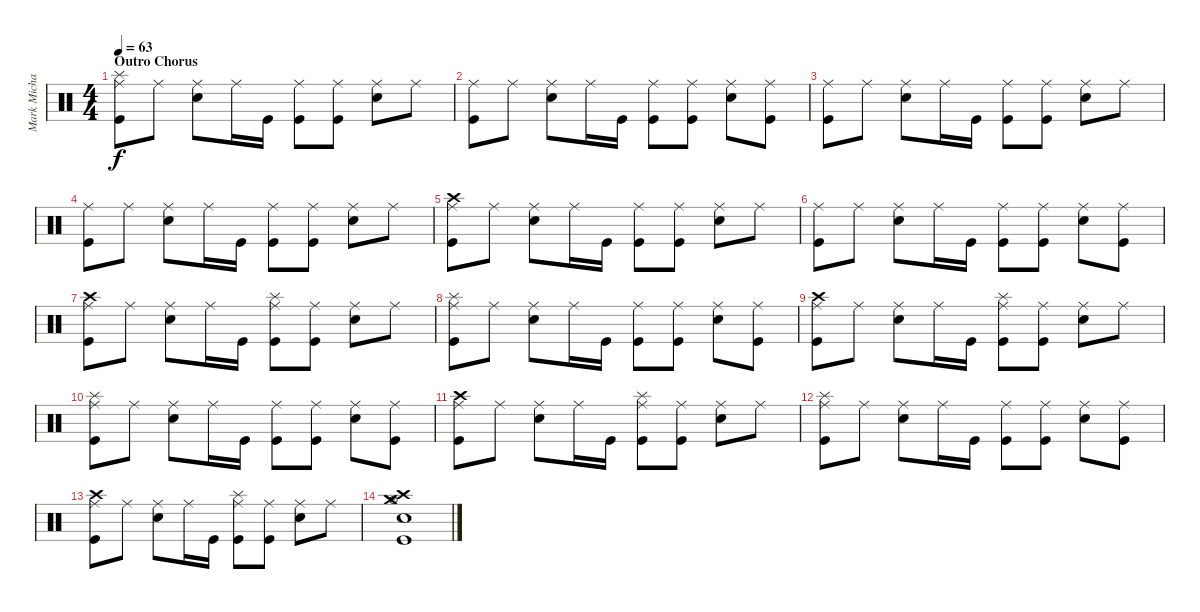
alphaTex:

\track ("Mark Michals - Drums" "Mark Micha") {instrument percussion}
\staff {score}
\articulation defaults
\ts (4 4)
\section ("" "Outro Chorus")
\tempo 63
\clef neutral
\ks c
("Ride (middle)" "Splash (hit)" "Kick (hit)").8{dy f} "Ride (middle)".8 ("Ride (middle)" "Snare (hit) 2").8 "Ride (middle)".16 "Kick (hit)".16 ("Ride (middle)" "Kick (hit)").8 ("Ride (middle)" "Kick (hit)").8 ("Ride (middle)" "Snare (hit) 2").8 "Ride (middle)".8 |
("Ride (middle)" "Kick (hit)").8 "Ride (middle)".8 ("Ride (middle)" "Snare (hit) 2").8 "Ride (middle)".16 "Kick (hit)".16 ("Ride (middle)" "Kick (hit)").8 ("Ride (middle)" "Kick (hit)").8 ("Ride (middle)" "Snare (hit) 2").8 ("Ride (middle)" "Kick (hit)").8 |
("Ride (middle)" "Kick (hit)").8 "Ride (middle)".8 ("Ride (middle)" "Snare (hit) 2").8 "Ride (middle)".16 "Kick (hit)".16 ("Ride (middle)" "Kick (hit)").8 ("Ride (middle)" "Kick (hit)").8 ("Ride (middle)" "Snare (hit) 2").8 "Ride (middle)".8 |
("Ride (middle)" "Kick (hit)").8 "Ride (middle)".8 ("Ride (middle)" "Snare (hit) 2").8 "Ride (middle)".16 "Kick (hit)".16 ("Ride (middle)" "Kick (hit)").8 ("Ride (middle)" "Kick (hit)").8 ("Ride (middle)" "Snare (hit) 2").8 "Ride (middle)".8 |
("Ride (middle)" "Crash high (hit)" "Kick (hit)").8 "Ride (middle)".8 ("Ride (middle)" "Snare (hit) 2").8 "Ride (middle)".16 "Kick (hit)".16 ("Ride (middle)" "Kick (hit)").8 ("Ride (middle)" "Kick (hit)").8 ("Ride (middle)" "Snare (hit) 2").8 "Ride (middle)".8 |
("Ride (middle)" "Kick (hit)").8 "Ride (middle)".8 ("Ride (middle)" "Snare (hit) 2").8 "Ride (middle)".16 "Kick (hit)".16 ("Ride (middle)" "Kick (hit)").8 ("Ride (middle)" "Kick (hit)").8 ("Ride (middle)" "Snare (hit) 2").8 ("Ride (middle)" "Kick (hit)").8 |
("Ride (middle)" "Crash high (hit)" "Kick (hit)").8 "Ride (middle)".8 ("Ride (middle)" "Snare (hit) 2").8 "Ride (middle)".16 "Kick (hit)".16 ("Ride (middle)" "Splash (hit)" "Kick (hit)").8 ("Ride (middle)" "Kick (hit)").8 ("Ride (middle)" "Snare (hit) 2").8 "Ride (middle)".8 |
("Ride (middle)" "Splash (hit)" "Kick (hit)").8 "Ride (middle)".8 ("Ride (middle)" "Snare (hit) 2").8 "Ride (middle)".16 "Kick (hit)".16 ("Ride (middle)" "Kick (hit)").8 ("Ride (middle)" "Kick (hit)").8 ("Ride (middle)" "Snare (hit) 2").8 ("Ride (middle)" "Kick (hit)").8 |
("Ride (middle)" "Crash high (hit)" "Kick (hit)").8 "Ride (middle)".8 ("Ride (middle)" "Snare (hit) 2").8 "Ride (middle)".16 "Kick (hit)".16 ("Ride (middle)" "Splash (hit)" "Kick (hit)").8 ("Ride (middle)" "Kick (hit)").8 ("Ride (middle)" "Snare (hit) 2").8 "Ride (middle)".8 |
("Ride (middle)" "Splash (hit)" "Kick (hit)").8 "Ride (middle)".8 ("Ride (middle)" "Snare (hit) 2").8 "Ride (middle)".16 "Kick (hit)".16 ("Ride (middle)" "Kick (hit)").8 ("Ride (middle)" "Kick (hit)").8 ("Ride (middle)" "Snare (hit) 2").8 ("Ride (middle)" "Kick (hit)").8 |
("Ride (middle)" "Crash high (hit)" "Kick (hit)").8 "Ride (middle)".8 ("Ride (middle)" "Snare (hit) 2").8 "Ride (middle)".16 "Kick (hit)".16 ("Ride (middle)" "Splash (hit)" "Kick (hit)").8 ("Ride (middle)" "Kick (hit)").8 ("Ride (middle)" "Snare (hit) 2").8 "Ride (middle)".8 |
("Ride (middle)" "Splash (hit)" "Kick (hit)").8 "Ride (middle)".8 ("Ride (middle)" "Snare (hit) 2").8 "Ride (middle)".16 "Kick (hit)".16 ("Ride (middle)" "Kick (hit)").8 ("Ride (middle)" "Kick (hit)").8 ("Ride (middle)" "Snare (hit) 2").8 ("Ride (middle)" "Kick (hit)").8 |
("Ride (middle)" "Crash high (hit)" "Kick (hit)").8 "Ride (middle)".8 ("Ride (middle)" "Snare (hit) 2").8 "Ride (middle)".16 "Kick (hit)".16 ("Ride (middle)" "Splash (hit)" "Kick (hit)").8 ("Ride (middle)" "Kick (hit)").8 ("Ride (middle)" "Snare (hit) 2").8 "Ride (middle)".8 |
("Hi-Hat (open)" "Crash high (hit)" "Crash medium (hit)" "Snare (hit) 2" "Kick (hit)").1
